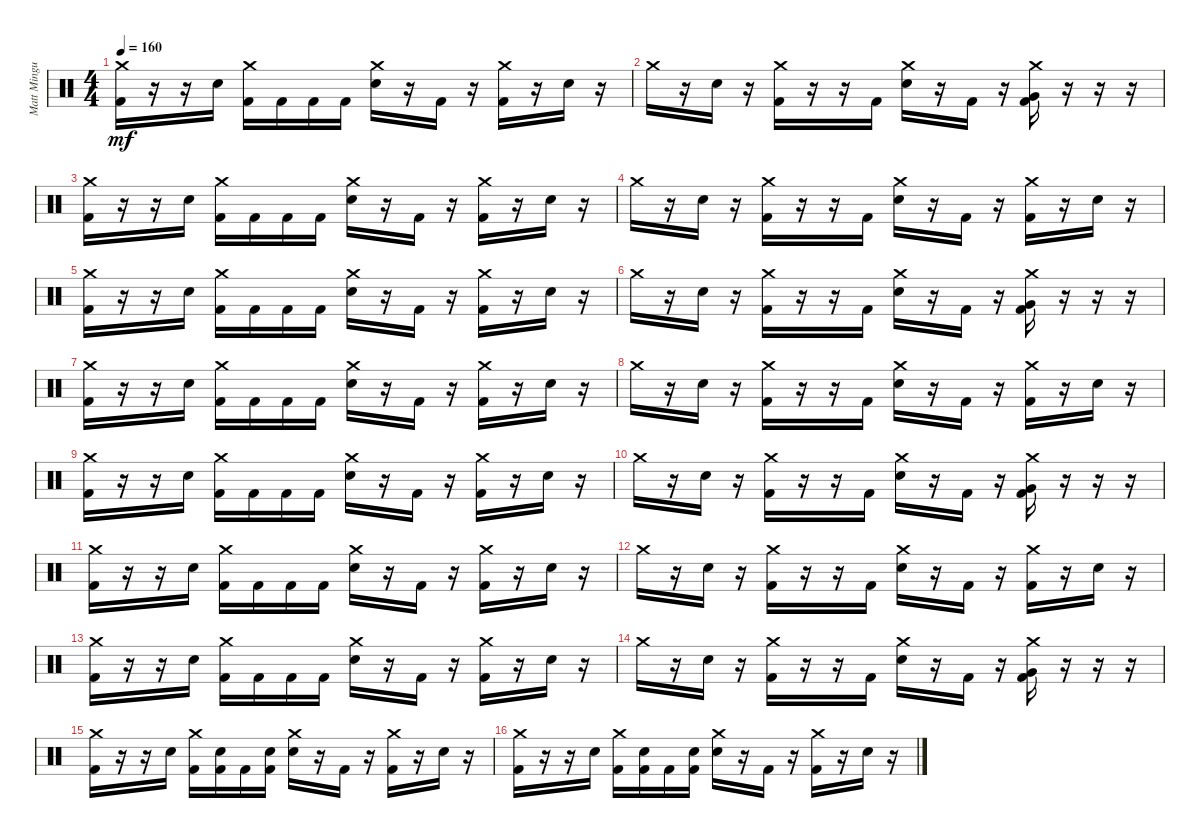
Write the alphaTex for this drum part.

\track ("Matt Mingus" "Matt Mingu") {instrument percussion}
\staff {score}
\articulation defaults
\ts (4 4)
\tempo 160
\clef neutral
\ks c
("Crash medium (hit)" "Kick (hit) 2").16{dy mf} r.16 r.16 "Electric Snare (hit)".16 ("Crash medium (hit)" "Kick (hit) 2").16 "Kick (hit) 2".16 "Kick (hit) 2".16 "Kick (hit) 2".16 ("Crash medium (hit)" "Electric Snare (hit)").16 r.16 "Kick (hit) 2".16 r.16 ("Crash medium (hit)" "Kick (hit) 2").16 r.16 "Electric Snare (hit)".16 r.16 |
"Crash medium (hit)".16 r.16 "Electric Snare (hit)".16 r.16 ("Crash medium (hit)" "Kick (hit) 2").16 r.16 r.16 "Kick (hit) 2".16 ("Crash medium (hit)" "Electric Snare (hit)").16 r.16 "Kick (hit) 2".16 r.16 ("Crash medium (hit)" "Very Low Tom (hit)" "Kick (hit) 2").16 r.16 r.16 r.16 |
("Crash medium (hit)" "Kick (hit) 2").16 r.16 r.16 "Electric Snare (hit)".16 ("Crash medium (hit)" "Kick (hit) 2").16 "Kick (hit) 2".16 "Kick (hit) 2".16 "Kick (hit) 2".16 ("Crash medium (hit)" "Electric Snare (hit)").16 r.16 "Kick (hit) 2".16 r.16 ("Crash medium (hit)" "Kick (hit) 2").16 r.16 "Electric Snare (hit)".16 r.16 |
"Crash medium (hit)".16 r.16 "Electric Snare (hit)".16 r.16 ("Crash medium (hit)" "Kick (hit) 2").16 r.16 r.16 "Kick (hit) 2".16 ("Crash medium (hit)" "Electric Snare (hit)").16 r.16 "Kick (hit) 2".16 r.16 ("Crash medium (hit)" "Kick (hit) 2").16 r.16 "Electric Snare (hit)".16 r.16 |
("Crash medium (hit)" "Kick (hit) 2").16 r.16 r.16 "Electric Snare (hit)".16 ("Crash medium (hit)" "Kick (hit) 2").16 "Kick (hit) 2".16 "Kick (hit) 2".16 "Kick (hit) 2".16 ("Crash medium (hit)" "Electric Snare (hit)").16 r.16 "Kick (hit) 2".16 r.16 ("Crash medium (hit)" "Kick (hit) 2").16 r.16 "Electric Snare (hit)".16 r.16 |
"Crash medium (hit)".16 r.16 "Electric Snare (hit)".16 r.16 ("Crash medium (hit)" "Kick (hit) 2").16 r.16 r.16 "Kick (hit) 2".16 ("Crash medium (hit)" "Electric Snare (hit)").16 r.16 "Kick (hit) 2".16 r.16 ("Crash medium (hit)" "Very Low Tom (hit)" "Kick (hit) 2").16 r.16 r.16 r.16 |
("Crash medium (hit)" "Kick (hit) 2").16 r.16 r.16 "Electric Snare (hit)".16 ("Crash medium (hit)" "Kick (hit) 2").16 "Kick (hit) 2".16 "Kick (hit) 2".16 "Kick (hit) 2".16 ("Crash medium (hit)" "Electric Snare (hit)").16 r.16 "Kick (hit) 2".16 r.16 ("Crash medium (hit)" "Kick (hit) 2").16 r.16 "Electric Snare (hit)".16 r.16 |
"Crash medium (hit)".16 r.16 "Electric Snare (hit)".16 r.16 ("Crash medium (hit)" "Kick (hit) 2").16 r.16 r.16 "Kick (hit) 2".16 ("Crash medium (hit)" "Electric Snare (hit)").16 r.16 "Kick (hit) 2".16 r.16 ("Crash medium (hit)" "Kick (hit) 2").16 r.16 "Electric Snare (hit)".16 r.16 |
("Crash medium (hit)" "Kick (hit) 2").16 r.16 r.16 "Electric Snare (hit)".16 ("Crash medium (hit)" "Kick (hit) 2").16 "Kick (hit) 2".16 "Kick (hit) 2".16 "Kick (hit) 2".16 ("Crash medium (hit)" "Electric Snare (hit)").16 r.16 "Kick (hit) 2".16 r.16 ("Crash medium (hit)" "Kick (hit) 2").16 r.16 "Electric Snare (hit)".16 r.16 |
"Crash medium (hit)".16 r.16 "Electric Snare (hit)".16 r.16 ("Crash medium (hit)" "Kick (hit) 2").16 r.16 r.16 "Kick (hit) 2".16 ("Crash medium (hit)" "Electric Snare (hit)").16 r.16 "Kick (hit) 2".16 r.16 ("Crash medium (hit)" "Very Low Tom (hit)" "Kick (hit) 2").16 r.16 r.16 r.16 |
("Crash medium (hit)" "Kick (hit) 2").16 r.16 r.16 "Electric Snare (hit)".16 ("Crash medium (hit)" "Kick (hit) 2").16 "Kick (hit) 2".16 "Kick (hit) 2".16 "Kick (hit) 2".16 ("Crash medium (hit)" "Electric Snare (hit)").16 r.16 "Kick (hit) 2".16 r.16 ("Crash medium (hit)" "Kick (hit) 2").16 r.16 "Electric Snare (hit)".16 r.16 |
"Crash medium (hit)".16 r.16 "Electric Snare (hit)".16 r.16 ("Crash medium (hit)" "Kick (hit) 2").16 r.16 r.16 "Kick (hit) 2".16 ("Crash medium (hit)" "Electric Snare (hit)").16 r.16 "Kick (hit) 2".16 r.16 ("Crash medium (hit)" "Kick (hit) 2").16 r.16 "Electric Snare (hit)".16 r.16 |
("Crash medium (hit)" "Kick (hit) 2").16 r.16 r.16 "Electric Snare (hit)".16 ("Crash medium (hit)" "Kick (hit) 2").16 "Kick (hit) 2".16 "Kick (hit) 2".16 "Kick (hit) 2".16 ("Crash medium (hit)" "Electric Snare (hit)").16 r.16 "Kick (hit) 2".16 r.16 ("Crash medium (hit)" "Kick (hit) 2").16 r.16 "Electric Snare (hit)".16 r.16 |
"Crash medium (hit)".16 r.16 "Electric Snare (hit)".16 r.16 ("Crash medium (hit)" "Kick (hit) 2").16 r.16 r.16 "Kick (hit) 2".16 ("Crash medium (hit)" "Electric Snare (hit)").16 r.16 "Kick (hit) 2".16 r.16 ("Crash medium (hit)" "Very Low Tom (hit)" "Kick (hit) 2").16 r.16 r.16 r.16 |
("Crash medium (hit)" "Kick (hit) 2").16 r.16 r.16 "Electric Snare (hit)".16 ("Crash medium (hit)" "Kick (hit) 2").16 ("Electric Snare (hit)" "Kick (hit) 2").16 "Kick (hit) 2".16 ("Electric Snare (hit)" "Kick (hit) 2").16 ("Crash medium (hit)" "Electric Snare (hit)").16 r.16 "Kick (hit) 2".16 r.16 ("Crash medium (hit)" "Kick (hit) 2").16 r.16 "Electric Snare (hit)".16 r.16 |
("Crash medium (hit)" "Kick (hit) 2").16 r.16 r.16 "Electric Snare (hit)".16 ("Crash medium (hit)" "Kick (hit) 2").16 ("Electric Snare (hit)" "Kick (hit) 2").16 "Kick (hit) 2".16 ("Electric Snare (hit)" "Kick (hit) 2").16 ("Crash medium (hit)" "Electric Snare (hit)").16 r.16 "Kick (hit) 2".16 r.16 ("Crash medium (hit)" "Kick (hit) 2").16 r.16 "Electric Snare (hit)".16 r.16
